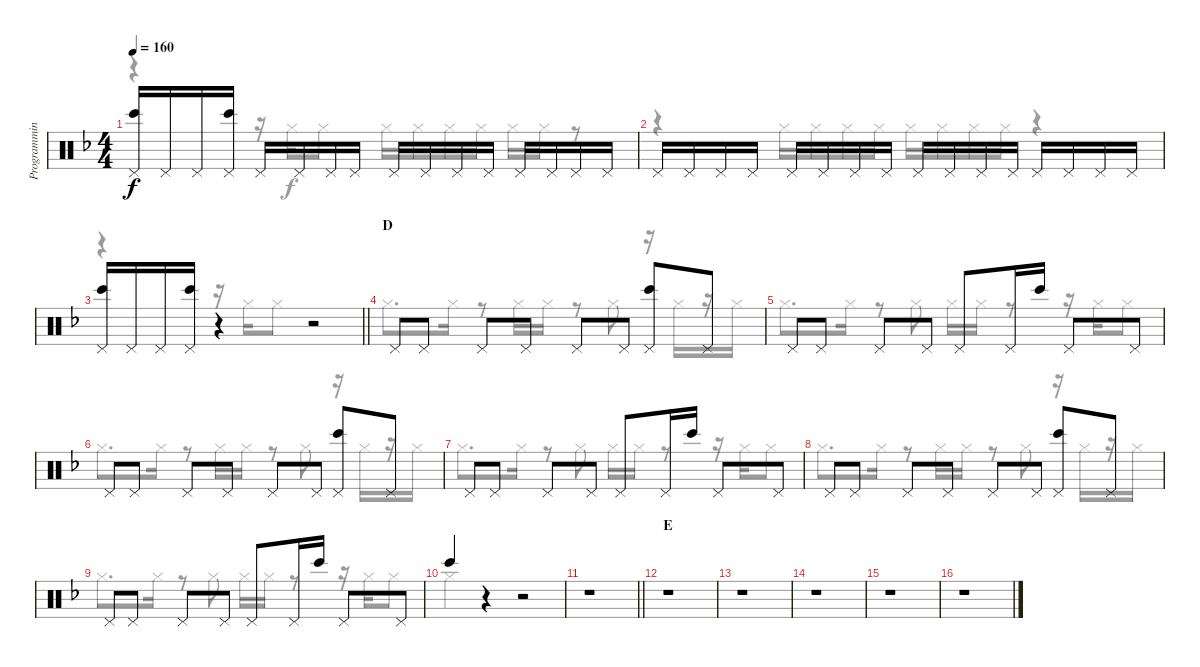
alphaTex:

\track ("Programming" "Programmin") {instrument percussion}
\staff {score}
\articulation defaults
\voice
\ts (4 4)
\tempo 160
\clef neutral
\ks f
("Pedal Hi-Hat (hit)" "Bongo High (hit)").16{dy f} "Pedal Hi-Hat (hit)".16 "Pedal Hi-Hat (hit)".16 ("Pedal Hi-Hat (hit)" "Bongo High (hit)").16 "Pedal Hi-Hat (hit)".16 "Pedal Hi-Hat (hit)".16 "Pedal Hi-Hat (hit)".16 "Pedal Hi-Hat (hit)".16 "Pedal Hi-Hat (hit)".16 "Pedal Hi-Hat (hit)".16 "Pedal Hi-Hat (hit)".16 "Pedal Hi-Hat (hit)".16 "Pedal Hi-Hat (hit)".16 "Pedal Hi-Hat (hit)".16 "Pedal Hi-Hat (hit)".16 "Pedal Hi-Hat (hit)".16 |
"Pedal Hi-Hat (hit)".16 "Pedal Hi-Hat (hit)".16 "Pedal Hi-Hat (hit)".16 "Pedal Hi-Hat (hit)".16 "Pedal Hi-Hat (hit)".16 "Pedal Hi-Hat (hit)".16 "Pedal Hi-Hat (hit)".16 "Pedal Hi-Hat (hit)".16 "Pedal Hi-Hat (hit)".16 "Pedal Hi-Hat (hit)".16 "Pedal Hi-Hat (hit)".16 "Pedal Hi-Hat (hit)".16 "Pedal Hi-Hat (hit)".16 "Pedal Hi-Hat (hit)".16 "Pedal Hi-Hat (hit)".16 "Pedal Hi-Hat (hit)".16 |
\barLineRight lightlight
("Pedal Hi-Hat (hit)" "Bongo High (hit)").16 "Pedal Hi-Hat (hit)".16 "Pedal Hi-Hat (hit)".16 ("Pedal Hi-Hat (hit)" "Bongo High (hit)").16 r.4 r.2 |
\section ("" "D")
"Pedal Hi-Hat (hit)".8 "Pedal Hi-Hat (hit)".8 "Pedal Hi-Hat (hit)".8 "Pedal Hi-Hat (hit)".8 "Pedal Hi-Hat (hit)".8 "Pedal Hi-Hat (hit)".8 ("Pedal Hi-Hat (hit)" "Bongo High (hit)").8 "Pedal Hi-Hat (hit)".8 |
"Pedal Hi-Hat (hit)".8 "Pedal Hi-Hat (hit)".8 "Pedal Hi-Hat (hit)".8 "Pedal Hi-Hat (hit)".8 "Pedal Hi-Hat (hit)".8 "Pedal Hi-Hat (hit)".16 "Bongo High (hit)".16 "Pedal Hi-Hat (hit)".8 "Pedal Hi-Hat (hit)".8 |
"Pedal Hi-Hat (hit)".8 "Pedal Hi-Hat (hit)".8 "Pedal Hi-Hat (hit)".8 "Pedal Hi-Hat (hit)".8 "Pedal Hi-Hat (hit)".8 "Pedal Hi-Hat (hit)".8 ("Pedal Hi-Hat (hit)" "Bongo High (hit)").8 "Pedal Hi-Hat (hit)".8 |
"Pedal Hi-Hat (hit)".8 "Pedal Hi-Hat (hit)".8 "Pedal Hi-Hat (hit)".8 "Pedal Hi-Hat (hit)".8 "Pedal Hi-Hat (hit)".8 "Pedal Hi-Hat (hit)".16 "Bongo High (hit)".16 "Pedal Hi-Hat (hit)".8 "Pedal Hi-Hat (hit)".8 |
"Pedal Hi-Hat (hit)".8 "Pedal Hi-Hat (hit)".8 "Pedal Hi-Hat (hit)".8 "Pedal Hi-Hat (hit)".8 "Pedal Hi-Hat (hit)".8 "Pedal Hi-Hat (hit)".8 ("Pedal Hi-Hat (hit)" "Bongo High (hit)").8 "Pedal Hi-Hat (hit)".8 |
"Pedal Hi-Hat (hit)".8 "Pedal Hi-Hat (hit)".8 "Pedal Hi-Hat (hit)".8 "Pedal Hi-Hat (hit)".8 "Pedal Hi-Hat (hit)".8 "Pedal Hi-Hat (hit)".16 "Bongo High (hit)".16 "Pedal Hi-Hat (hit)".8 "Pedal Hi-Hat (hit)".8 |
"Bongo High (hit)".4 r.4 r.2 |
\barLineRight lightlight
r.1 |
\section ("" "E")
r.1 |
r.1 |
r.1 |
r.1 |
r.1
\voice
\clef neutral
\ottava regular
\simile none
\ks f
r.4{dy f} r.16 "Hi-Hat (closed)".16 "Hi-Hat (closed)".8 "Hi-Hat (closed)".16 "Hi-Hat (closed)".16 "Hi-Hat (closed)".16 "Hi-Hat (closed)".16 "Hi-Hat (closed)".16 "Hi-Hat (closed)".16 r.8 |
r.4 "Hi-Hat (closed)".16 "Hi-Hat (closed)".16 "Hi-Hat (closed)".16 "Hi-Hat (closed)".16 "Hi-Hat (closed)".16 "Hi-Hat (closed)".16 "Hi-Hat (closed)".16 "Hi-Hat (closed)".16 r.4 |
\barLineRight lightlight
r.4 r.16 "Hi-Hat (closed)".16 "Hi-Hat (closed)".8 r.2 |
"Hi-Hat (closed)".8{d} "Hi-Hat (closed)".16 r.8 "Hi-Hat (closed)".16 "Hi-Hat (closed)".16 r.8 "Hi-Hat (closed)".8 r.16 "Hi-Hat (closed)".16 r.16 "Hi-Hat (closed)".16 |
"Hi-Hat (closed)".8{d} "Hi-Hat (closed)".16 r.8 "Hi-Hat (closed)".8 "Hi-Hat (closed)".16 "Hi-Hat (closed)".16 r.8 r.16 "Hi-Hat (closed)".16 "Hi-Hat (closed)".8 |
"Hi-Hat (closed)".8{d} "Hi-Hat (closed)".16 r.8 "Hi-Hat (closed)".16 "Hi-Hat (closed)".16 r.8 "Hi-Hat (closed)".8 r.16 "Hi-Hat (closed)".16 r.16 "Hi-Hat (closed)".16 |
"Hi-Hat (closed)".8{d} "Hi-Hat (closed)".16 r.8 "Hi-Hat (closed)".8 "Hi-Hat (closed)".16 "Hi-Hat (closed)".16 r.8 r.16 "Hi-Hat (closed)".16 "Hi-Hat (closed)".8 |
"Hi-Hat (closed)".8{d} "Hi-Hat (closed)".16 r.8 "Hi-Hat (closed)".16 "Hi-Hat (closed)".16 r.8 "Hi-Hat (closed)".8 r.16 "Hi-Hat (closed)".16 r.16 "Hi-Hat (closed)".16 |
"Hi-Hat (closed)".8{d} "Hi-Hat (closed)".16 r.8 "Hi-Hat (closed)".8 "Hi-Hat (closed)".16 "Hi-Hat (closed)".16 r.8 r.16 "Hi-Hat (closed)".16 "Hi-Hat (closed)".8 |
"Hi-Hat (closed)".4 r.4 r.2 |
\barLineRight lightlight
r.1 |
r.1 |
r.1 |
r.1 |
r.1 |
r.1
